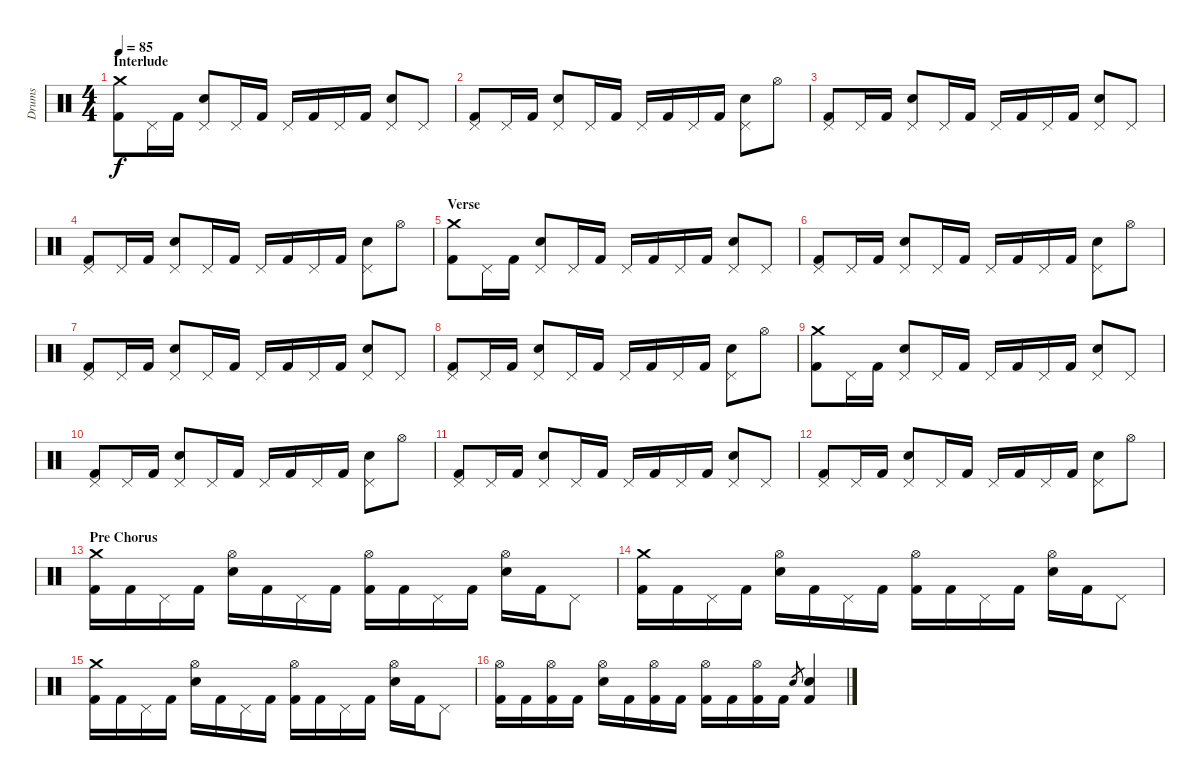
\track ("Drums" "Drums") {instrument percussion}
\staff {score}
\articulation defaults
\ts (4 4)
\section ("" "Interlude")
\tempo 85
\clef neutral
\ks c
("Crash medium (hit)" "Kick (hit) 2").8{dy f} "Pedal Hi-Hat (hit)".16 "Kick (hit) 2".16 ("Pedal Hi-Hat (hit)" "Electric Snare (hit)").8 "Pedal Hi-Hat (hit)".16 "Kick (hit) 2".16 "Pedal Hi-Hat (hit)".16 "Kick (hit) 2".16 "Pedal Hi-Hat (hit)".16 "Kick (hit) 2".16 ("Pedal Hi-Hat (hit)" "Electric Snare (hit)").8 "Pedal Hi-Hat (hit)".8 |
("Pedal Hi-Hat (hit)" "Kick (hit) 2").8 "Pedal Hi-Hat (hit)".16 "Kick (hit) 2".16 ("Pedal Hi-Hat (hit)" "Electric Snare (hit)").8 "Pedal Hi-Hat (hit)".16 "Kick (hit) 2".16 "Pedal Hi-Hat (hit)".16 "Kick (hit) 2".16 "Pedal Hi-Hat (hit)".16 "Kick (hit) 2".16 ("Pedal Hi-Hat (hit)" "Electric Snare (hit)").8 "Hi-Hat (open)".8 |
("Pedal Hi-Hat (hit)" "Kick (hit) 2").8 "Pedal Hi-Hat (hit)".16 "Kick (hit) 2".16 ("Pedal Hi-Hat (hit)" "Electric Snare (hit)").8 "Pedal Hi-Hat (hit)".16 "Kick (hit) 2".16 "Pedal Hi-Hat (hit)".16 "Kick (hit) 2".16 "Pedal Hi-Hat (hit)".16 "Kick (hit) 2".16 ("Pedal Hi-Hat (hit)" "Electric Snare (hit)").8 "Pedal Hi-Hat (hit)".8 |
("Pedal Hi-Hat (hit)" "Kick (hit) 2").8 "Pedal Hi-Hat (hit)".16 "Kick (hit) 2".16 ("Pedal Hi-Hat (hit)" "Electric Snare (hit)").8 "Pedal Hi-Hat (hit)".16 "Kick (hit) 2".16 "Pedal Hi-Hat (hit)".16 "Kick (hit) 2".16 "Pedal Hi-Hat (hit)".16 "Kick (hit) 2".16 ("Pedal Hi-Hat (hit)" "Electric Snare (hit)").8 "Hi-Hat (open)".8 |
\section ("" "Verse")
("Crash medium (hit)" "Kick (hit) 2").8 "Pedal Hi-Hat (hit)".16 "Kick (hit) 2".16 ("Pedal Hi-Hat (hit)" "Electric Snare (hit)").8 "Pedal Hi-Hat (hit)".16 "Kick (hit) 2".16 "Pedal Hi-Hat (hit)".16 "Kick (hit) 2".16 "Pedal Hi-Hat (hit)".16 "Kick (hit) 2".16 ("Pedal Hi-Hat (hit)" "Electric Snare (hit)").8 "Pedal Hi-Hat (hit)".8 |
("Pedal Hi-Hat (hit)" "Kick (hit) 2").8 "Pedal Hi-Hat (hit)".16 "Kick (hit) 2".16 ("Pedal Hi-Hat (hit)" "Electric Snare (hit)").8 "Pedal Hi-Hat (hit)".16 "Kick (hit) 2".16 "Pedal Hi-Hat (hit)".16 "Kick (hit) 2".16 "Pedal Hi-Hat (hit)".16 "Kick (hit) 2".16 ("Pedal Hi-Hat (hit)" "Electric Snare (hit)").8 "Hi-Hat (open)".8 |
("Pedal Hi-Hat (hit)" "Kick (hit) 2").8 "Pedal Hi-Hat (hit)".16 "Kick (hit) 2".16 ("Pedal Hi-Hat (hit)" "Electric Snare (hit)").8 "Pedal Hi-Hat (hit)".16 "Kick (hit) 2".16 "Pedal Hi-Hat (hit)".16 "Kick (hit) 2".16 "Pedal Hi-Hat (hit)".16 "Kick (hit) 2".16 ("Pedal Hi-Hat (hit)" "Electric Snare (hit)").8 "Pedal Hi-Hat (hit)".8 |
("Pedal Hi-Hat (hit)" "Kick (hit) 2").8 "Pedal Hi-Hat (hit)".16 "Kick (hit) 2".16 ("Pedal Hi-Hat (hit)" "Electric Snare (hit)").8 "Pedal Hi-Hat (hit)".16 "Kick (hit) 2".16 "Pedal Hi-Hat (hit)".16 "Kick (hit) 2".16 "Pedal Hi-Hat (hit)".16 "Kick (hit) 2".16 ("Pedal Hi-Hat (hit)" "Electric Snare (hit)").8 "Hi-Hat (open)".8 |
("Crash medium (hit)" "Kick (hit) 2").8 "Pedal Hi-Hat (hit)".16 "Kick (hit) 2".16 ("Pedal Hi-Hat (hit)" "Electric Snare (hit)").8 "Pedal Hi-Hat (hit)".16 "Kick (hit) 2".16 "Pedal Hi-Hat (hit)".16 "Kick (hit) 2".16 "Pedal Hi-Hat (hit)".16 "Kick (hit) 2".16 ("Pedal Hi-Hat (hit)" "Electric Snare (hit)").8 "Pedal Hi-Hat (hit)".8 |
("Pedal Hi-Hat (hit)" "Kick (hit) 2").8 "Pedal Hi-Hat (hit)".16 "Kick (hit) 2".16 ("Pedal Hi-Hat (hit)" "Electric Snare (hit)").8 "Pedal Hi-Hat (hit)".16 "Kick (hit) 2".16 "Pedal Hi-Hat (hit)".16 "Kick (hit) 2".16 "Pedal Hi-Hat (hit)".16 "Kick (hit) 2".16 ("Pedal Hi-Hat (hit)" "Electric Snare (hit)").8 "Hi-Hat (open)".8 |
("Pedal Hi-Hat (hit)" "Kick (hit) 2").8 "Pedal Hi-Hat (hit)".16 "Kick (hit) 2".16 ("Pedal Hi-Hat (hit)" "Electric Snare (hit)").8 "Pedal Hi-Hat (hit)".16 "Kick (hit) 2".16 "Pedal Hi-Hat (hit)".16 "Kick (hit) 2".16 "Pedal Hi-Hat (hit)".16 "Kick (hit) 2".16 ("Pedal Hi-Hat (hit)" "Electric Snare (hit)").8 "Pedal Hi-Hat (hit)".8 |
("Pedal Hi-Hat (hit)" "Kick (hit) 2").8 "Pedal Hi-Hat (hit)".16 "Kick (hit) 2".16 ("Pedal Hi-Hat (hit)" "Electric Snare (hit)").8 "Pedal Hi-Hat (hit)".16 "Kick (hit) 2".16 "Pedal Hi-Hat (hit)".16 "Kick (hit) 2".16 "Pedal Hi-Hat (hit)".16 "Kick (hit) 2".16 ("Pedal Hi-Hat (hit)" "Electric Snare (hit)").8 "Hi-Hat (open)".8 |
\section ("" "Pre Chorus")
("Crash medium (hit)" "Kick (hit) 2").16 "Kick (hit) 2".16 "Pedal Hi-Hat (hit)".16 "Kick (hit) 2".16 ("Hi-Hat (open)" "Electric Snare (hit)").16 "Kick (hit) 2".16 "Pedal Hi-Hat (hit)".16 "Kick (hit) 2".16 ("Hi-Hat (open)" "Kick (hit) 2").16 "Kick (hit) 2".16 "Pedal Hi-Hat (hit)".16 "Kick (hit) 2".16 ("Hi-Hat (open)" "Electric Snare (hit)").16 "Kick (hit) 2".16 "Pedal Hi-Hat (hit)".8 |
("Crash medium (hit)" "Kick (hit) 2").16 "Kick (hit) 2".16 "Pedal Hi-Hat (hit)".16 "Kick (hit) 2".16 ("Hi-Hat (open)" "Electric Snare (hit)").16 "Kick (hit) 2".16 "Pedal Hi-Hat (hit)".16 "Kick (hit) 2".16 ("Hi-Hat (open)" "Kick (hit) 2").16 "Kick (hit) 2".16 "Pedal Hi-Hat (hit)".16 "Kick (hit) 2".16 ("Hi-Hat (open)" "Electric Snare (hit)").16 "Kick (hit) 2".16 "Pedal Hi-Hat (hit)".8 |
("Crash medium (hit)" "Kick (hit) 2").16 "Kick (hit) 2".16 "Pedal Hi-Hat (hit)".16 "Kick (hit) 2".16 ("Hi-Hat (open)" "Electric Snare (hit)").16 "Kick (hit) 2".16 "Pedal Hi-Hat (hit)".16 "Kick (hit) 2".16 ("Hi-Hat (open)" "Kick (hit) 2").16 "Kick (hit) 2".16 "Pedal Hi-Hat (hit)".16 "Kick (hit) 2".16 ("Hi-Hat (open)" "Electric Snare (hit)").16 "Kick (hit) 2".16 "Pedal Hi-Hat (hit)".8 |
("Hi-Hat (open)" "Kick (hit) 2").16 "Kick (hit) 2".16 ("Hi-Hat (open)" "Kick (hit) 2").16 "Kick (hit) 2".16 ("Hi-Hat (open)" "Electric Snare (hit)").16 "Kick (hit) 2".16 ("Hi-Hat (open)" "Kick (hit) 2").16 "Kick (hit) 2".16 ("Hi-Hat (open)" "Kick (hit) 2").16 "Kick (hit) 2".16 ("Hi-Hat (open)" "Kick (hit) 2").16 "Kick (hit) 2".16 "Electric Snare (hit)".8{gr} ("Electric Snare (hit)" "Kick (hit) 2").4
